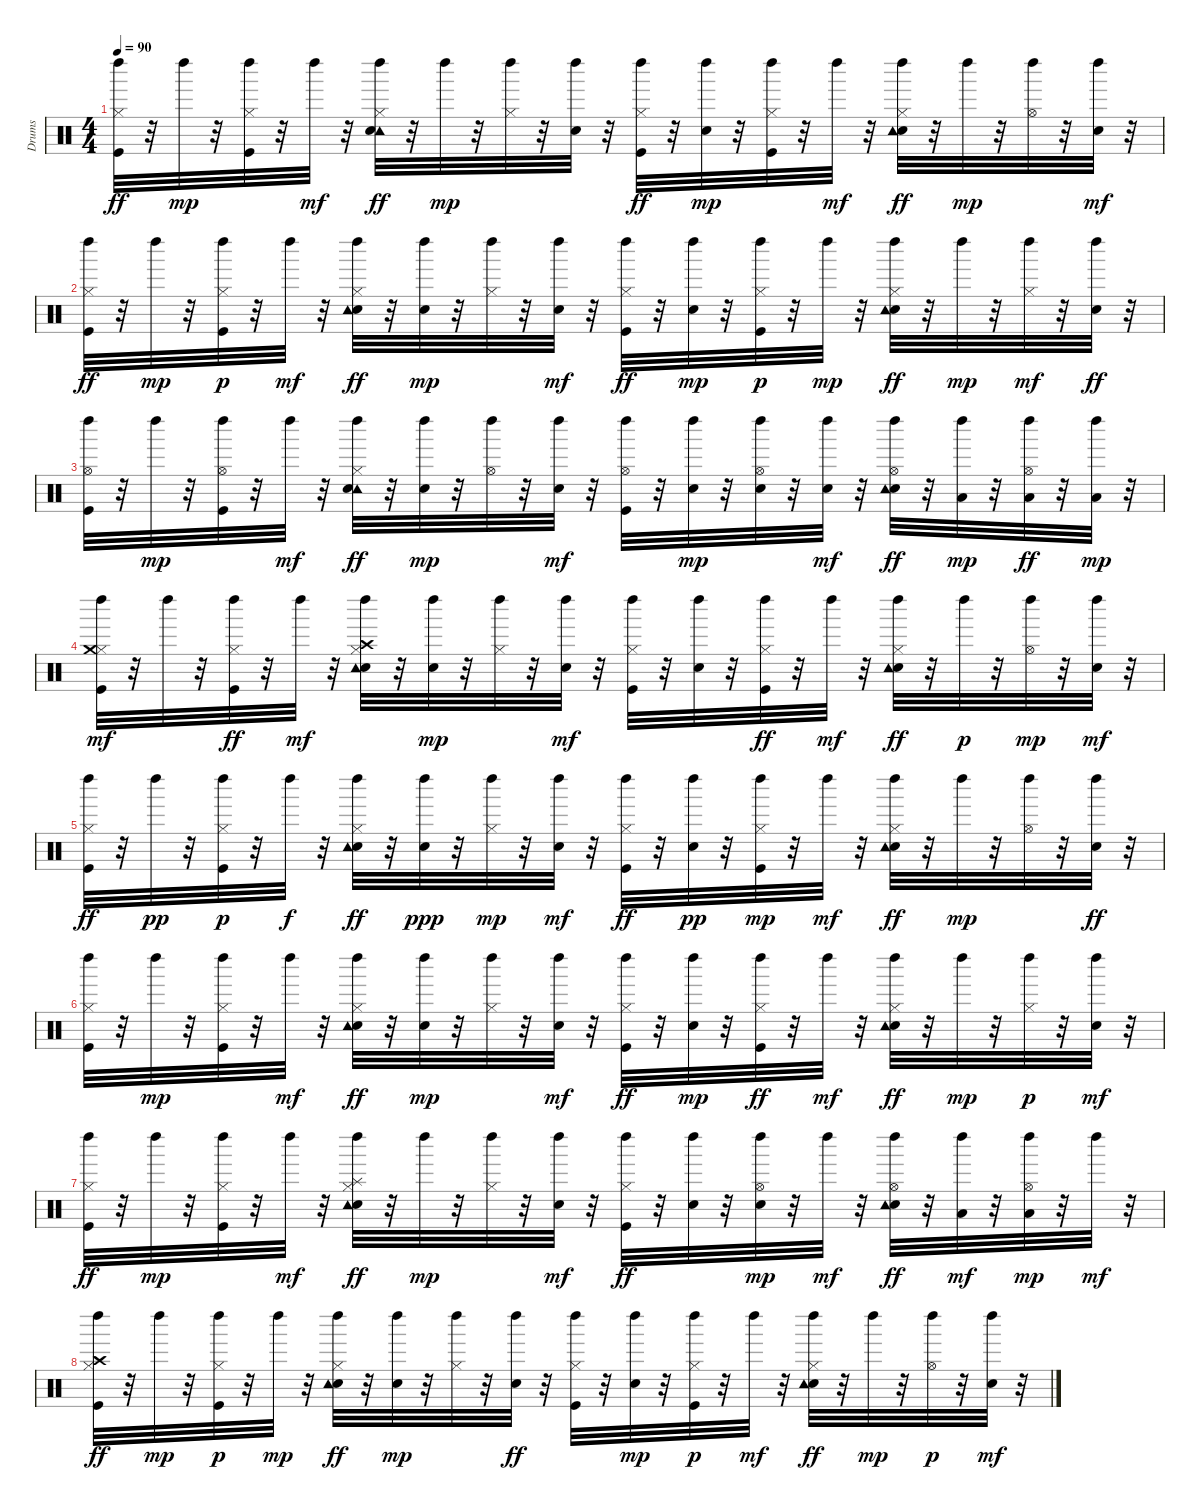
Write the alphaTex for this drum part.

\track ("Drums" "Drums") {instrument percussion}
\staff {score}
\articulation defaults
\ts (4 4)
\tempo 90
\clef neutral
\ks c
("Kick (hit)" "Hi-Hat (closed)" "Left Maraca (hit)").32{dy ff} r.32 "Left Maraca (hit)".32{dy mp} r.32 ("Hi-Hat (closed)" "Kick (hit)" "Left Maraca (hit)").32 r.32 "Left Maraca (hit)".32{dy mf} r.32 ("Hi-Hat (closed)" "Tambourine (hit)" "Electric Snare (hit)" "Left Maraca (hit)").32{dy ff} r.32 "Left Maraca (hit)".32{dy mp} r.32 ("Hi-Hat (closed)" "Left Maraca (hit)").32 r.32 ("Electric Snare (hit)" "Left Maraca (hit)").32 r.32 ("Hi-Hat (closed)" "Kick (hit)" "Left Maraca (hit)").32{dy ff} r.32 ("Electric Snare (hit)" "Left Maraca (hit)").32{dy mp} r.32 ("Hi-Hat (closed)" "Kick (hit)" "Left Maraca (hit)").32 r.32 "Left Maraca (hit)".32{dy mf} r.32 ("Electric Snare (hit)" "Tambourine (hit)" "Hi-Hat (closed)" "Left Maraca (hit)").32{dy ff} r.32 "Left Maraca (hit)".32{dy mp} r.32 ("Hi-Hat (open)" "Left Maraca (hit)").32 r.32 ("Left Maraca (hit)" "Electric Snare (hit)").32{dy mf} r.32 |
("Hi-Hat (closed)" "Left Maraca (hit)" "Kick (hit)").32{dy ff} r.32 "Left Maraca (hit)".32{dy mp} r.32 ("Hi-Hat (closed)" "Kick (hit)" "Left Maraca (hit)").32{dy p} r.32 "Left Maraca (hit)".32{dy mf} r.32 ("Hi-Hat (closed)" "Electric Snare (hit)" "Tambourine (hit)" "Left Maraca (hit)").32{dy ff} r.32 ("Electric Snare (hit)" "Left Maraca (hit)").32{dy mp} r.32 ("Hi-Hat (closed)" "Left Maraca (hit)").32 r.32 ("Electric Snare (hit)" "Left Maraca (hit)").32{dy mf} r.32 ("Hi-Hat (closed)" "Kick (hit)" "Left Maraca (hit)").32{dy ff} r.32 ("Electric Snare (hit)" "Left Maraca (hit)").32{dy mp} r.32 ("Hi-Hat (closed)" "Kick (hit)" "Left Maraca (hit)").32{dy p} r.32 "Left Maraca (hit)".32{dy mp} r.32 ("Electric Snare (hit)" "Tambourine (hit)" "Left Maraca (hit)" "Hi-Hat (closed)").32{dy ff} r.32 "Left Maraca (hit)".32{dy mp} r.32 ("Left Maraca (hit)" "Hi-Hat (closed)").32{dy mf} r.32 ("Left Maraca (hit)" "Electric Snare (hit)").32{dy ff} r.32 |
("Hi-Hat (open)" "Kick (hit)" "Left Maraca (hit)").32 r.32 "Left Maraca (hit)".32{dy mp} r.32 ("Hi-Hat (open)" "Kick (hit)" "Left Maraca (hit)").32 r.32 "Left Maraca (hit)".32{dy mf} r.32 ("Tambourine (hit)" "Hi-Hat (closed)" "Electric Snare (hit)" "Left Maraca (hit)").32{dy ff} r.32 ("Left Maraca (hit)" "Electric Snare (hit)").32{dy mp} r.32 ("Hi-Hat (open)" "Left Maraca (hit)").32 r.32 ("Electric Snare (hit)" "Left Maraca (hit)").32{dy mf} r.32 ("Hi-Hat (open)" "Kick (hit)" "Left Maraca (hit)").32 r.32 ("Electric Snare (hit)" "Left Maraca (hit)").32{dy mp} r.32 ("Electric Snare (hit)" "Hi-Hat (open)" "Left Maraca (hit)").32 r.32 ("Electric Snare (hit)" "Left Maraca (hit)").32{dy mf} r.32 ("Electric Snare (hit)" "Tambourine (hit)" "Left Maraca (hit)" "Hi-Hat (open)").32{dy ff} r.32 ("Low Tom (hit)" "Left Maraca (hit)").32{dy mp} r.32 ("Low Floor Tom (hit)" "Left Maraca (hit)" "Hi-Hat (open)").32{dy ff} r.32 ("Low Floor Tom (hit)" "Left Maraca (hit)").32{dy mp} r.32 |
("Kick (hit)" "Left Maraca (hit)" "Hi-Hat (closed)" "Crash medium (hit)").32{dy mf} r.32 "Left Maraca (hit)".32 r.32 ("Left Maraca (hit)" "Hi-Hat (closed)" "Kick (hit)").32{dy ff} r.32 "Left Maraca (hit)".32{dy mf} r.32 ("Hi-Hat (closed)" "Electric Snare (hit)" "Left Maraca (hit)" "Crash high (hit)" "Tambourine (hit)").32 r.32 ("Electric Snare (hit)" "Left Maraca (hit)").32{dy mp} r.32 ("Hi-Hat (closed)" "Left Maraca (hit)").32 r.32 ("Electric Snare (hit)" "Left Maraca (hit)").32{dy mf} r.32 ("Kick (hit)" "Left Maraca (hit)" "Hi-Hat (closed)").32 r.32 ("Electric Snare (hit)" "Left Maraca (hit)").32 r.32 ("Left Maraca (hit)" "Hi-Hat (closed)" "Kick (hit)").32{dy ff} r.32 "Left Maraca (hit)".32{dy mf} r.32 ("Hi-Hat (closed)" "Electric Snare (hit)" "Left Maraca (hit)" "Tambourine (hit)").32{dy ff} r.32 "Left Maraca (hit)".32{dy p} r.32 ("Hi-Hat (open)" "Left Maraca (hit)").32{dy mp} r.32 ("Electric Snare (hit)" "Left Maraca (hit)").32{dy mf} r.32 |
("Hi-Hat (closed)" "Left Maraca (hit)" "Kick (hit)").32{dy ff} r.32 "Left Maraca (hit)".32{dy pp} r.32 ("Hi-Hat (closed)" "Kick (hit)" "Left Maraca (hit)").32{dy p} r.32 "Left Maraca (hit)".32{dy f} r.32 ("Electric Snare (hit)" "Tambourine (hit)" "Hi-Hat (closed)" "Left Maraca (hit)").32{dy ff} r.32 ("Electric Snare (hit)" "Left Maraca (hit)").32{dy ppp} r.32 ("Hi-Hat (closed)" "Left Maraca (hit)").32{dy mp} r.32 ("Electric Snare (hit)" "Left Maraca (hit)").32{dy mf} r.32 ("Hi-Hat (closed)" "Kick (hit)" "Left Maraca (hit)").32{dy ff} r.32 ("Electric Snare (hit)" "Left Maraca (hit)").32{dy pp} r.32 ("Hi-Hat (closed)" "Kick (hit)" "Left Maraca (hit)").32{dy mp} r.32 "Left Maraca (hit)".32{dy mf} r.32 ("Hi-Hat (closed)" "Electric Snare (hit)" "Tambourine (hit)" "Left Maraca (hit)").32{dy ff} r.32 "Left Maraca (hit)".32{dy mp} r.32 ("Hi-Hat (open)" "Left Maraca (hit)").32 r.32 ("Electric Snare (hit)" "Left Maraca (hit)").32{dy ff} r.32 |
("Hi-Hat (closed)" "Kick (hit)" "Left Maraca (hit)").32 r.32 "Left Maraca (hit)".32{dy mp} r.32 ("Hi-Hat (closed)" "Kick (hit)" "Left Maraca (hit)").32 r.32 "Left Maraca (hit)".32{dy mf} r.32 ("Hi-Hat (closed)" "Electric Snare (hit)" "Tambourine (hit)" "Left Maraca (hit)").32{dy ff} r.32 ("Electric Snare (hit)" "Left Maraca (hit)").32{dy mp} r.32 ("Hi-Hat (closed)" "Left Maraca (hit)").32 r.32 ("Electric Snare (hit)" "Left Maraca (hit)").32{dy mf} r.32 ("Hi-Hat (closed)" "Kick (hit)" "Left Maraca (hit)").32{dy ff} r.32 ("Electric Snare (hit)" "Left Maraca (hit)").32{dy mp} r.32 ("Left Maraca (hit)" "Hi-Hat (closed)" "Kick (hit)").32{dy ff} r.32 "Left Maraca (hit)".32{dy mf} r.32 ("Electric Snare (hit)" "Tambourine (hit)" "Left Maraca (hit)" "Hi-Hat (closed)").32{dy ff} r.32 "Left Maraca (hit)".32{dy mp} r.32 ("Left Maraca (hit)" "Hi-Hat (closed)").32{dy p} r.32 ("Left Maraca (hit)" "Electric Snare (hit)").32{dy mf} r.32 |
("Kick (hit)" "Left Maraca (hit)" "Hi-Hat (closed)").32{dy ff} r.32 "Left Maraca (hit)".32{dy mp} r.32 ("Hi-Hat (closed)" "Kick (hit)" "Left Maraca (hit)").32 r.32 "Left Maraca (hit)".32{dy mf} r.32 ("Hi-Hat (closed)" "Electric Snare (hit)" "Splash (hit)" "Tambourine (hit)" "Left Maraca (hit)").32{dy ff} r.32 "Left Maraca (hit)".32{dy mp} r.32 ("Hi-Hat (closed)" "Left Maraca (hit)").32 r.32 ("Electric Snare (hit)" "Left Maraca (hit)").32{dy mf} r.32 ("Hi-Hat (closed)" "Left Maraca (hit)" "Kick (hit)").32{dy ff} r.32 ("Left Maraca (hit)" "Electric Snare (hit)").32 r.32 ("Hi-Hat (open)" "Electric Snare (hit)" "Left Maraca (hit)").32{dy mp} r.32 "Left Maraca (hit)".32{dy mf} r.32 ("Hi-Hat (open)" "Electric Snare (hit)" "Tambourine (hit)" "Left Maraca (hit)").32{dy ff} r.32 ("Low Tom (hit)" "Left Maraca (hit)").32{dy mf} r.32 ("Hi-Hat (open)" "Low Floor Tom (hit)" "Left Maraca (hit)").32{dy mp} r.32 "Left Maraca (hit)".32{dy mf} r.32 |
("Hi-Hat (closed)" "Left Maraca (hit)" "Crash high (hit)" "Kick (hit)").32{dy ff} r.32 "Left Maraca (hit)".32{dy mp} r.32 ("Hi-Hat (closed)" "Kick (hit)" "Left Maraca (hit)").32{dy p} r.32 "Left Maraca (hit)".32{dy mp} r.32 ("Electric Snare (hit)" "Left Maraca (hit)" "Hi-Hat (closed)" "Tambourine (hit)").32{dy ff} r.32 ("Electric Snare (hit)" "Left Maraca (hit)").32{dy mp} r.32 ("Hi-Hat (closed)" "Left Maraca (hit)").32 r.32 ("Left Maraca (hit)" "Electric Snare (hit)").32{dy ff} r.32 ("Hi-Hat (closed)" "Kick (hit)" "Left Maraca (hit)").32 r.32 ("Electric Snare (hit)" "Left Maraca (hit)").32{dy mp} r.32 ("Hi-Hat (closed)" "Kick (hit)" "Left Maraca (hit)").32{dy p} r.32 "Left Maraca (hit)".32{dy mf} r.32 ("Hi-Hat (closed)" "Electric Snare (hit)" "Left Maraca (hit)" "Tambourine (hit)").32{dy ff} r.32 "Left Maraca (hit)".32{dy mp} r.32 ("Hi-Hat (open)" "Left Maraca (hit)").32{dy p} r.32 ("Electric Snare (hit)" "Left Maraca (hit)").32{dy mf} r.32
